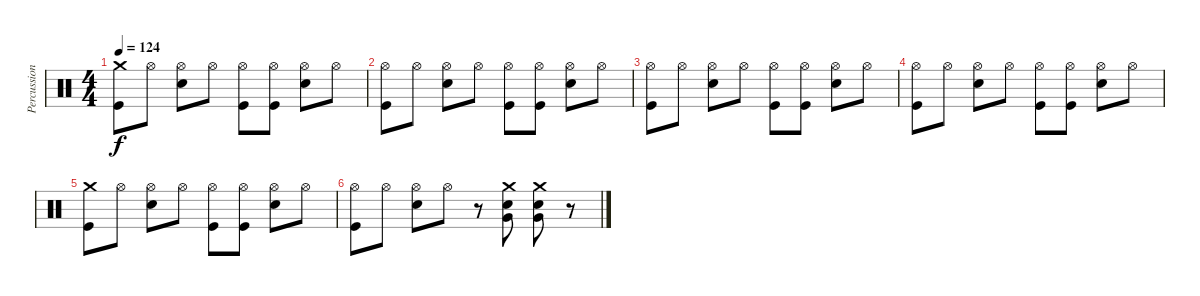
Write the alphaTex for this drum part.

\track ("Percussion" "Percussion") {instrument percussion}
\staff {score}
\articulation defaults
\ts (4 4)
\tempo 124
\clef neutral
\ks c
("Crash medium (hit)" "Kick (hit)").8{dy f} "Hi-Hat (open)".8 ("Hi-Hat (open)" "Snare (hit) 2").8 "Hi-Hat (open)".8 ("Hi-Hat (open)" "Kick (hit)").8 ("Hi-Hat (open)" "Kick (hit)").8 ("Hi-Hat (open)" "Snare (hit) 2").8 "Hi-Hat (open)".8 |
("Hi-Hat (open)" "Kick (hit)").8 "Hi-Hat (open)".8 ("Hi-Hat (open)" "Snare (hit) 2").8 "Hi-Hat (open)".8 ("Hi-Hat (open)" "Kick (hit)").8 ("Hi-Hat (open)" "Kick (hit)").8 ("Hi-Hat (open)" "Snare (hit) 2").8 "Hi-Hat (open)".8 |
("Hi-Hat (open)" "Kick (hit)").8 "Hi-Hat (open)".8 ("Hi-Hat (open)" "Snare (hit) 2").8 "Hi-Hat (open)".8 ("Hi-Hat (open)" "Kick (hit)").8 ("Hi-Hat (open)" "Kick (hit)").8 ("Hi-Hat (open)" "Snare (hit) 2").8 "Hi-Hat (open)".8 |
("Hi-Hat (open)" "Kick (hit)").8 "Hi-Hat (open)".8 ("Hi-Hat (open)" "Snare (hit) 2").8 "Hi-Hat (open)".8 ("Hi-Hat (open)" "Kick (hit)").8 ("Hi-Hat (open)" "Kick (hit)").8 ("Hi-Hat (open)" "Snare (hit) 2").8 "Hi-Hat (open)".8 |
("Crash medium (hit)" "Kick (hit)").8 "Hi-Hat (open)".8 ("Hi-Hat (open)" "Snare (hit) 2").8 "Hi-Hat (open)".8 ("Hi-Hat (open)" "Kick (hit)").8 ("Hi-Hat (open)" "Kick (hit)").8 ("Hi-Hat (open)" "Snare (hit) 2").8 "Hi-Hat (open)".8 |
("Hi-Hat (open)" "Kick (hit)").8 "Hi-Hat (open)".8 ("Hi-Hat (open)" "Snare (hit) 2").8 "Hi-Hat (open)".8 r.8 ("Snare (hit) 2" "Very Low Tom (hit)" "Crash medium (hit)").8 ("Snare (hit) 2" "Very Low Tom (hit)" "Crash medium (hit)").8 r.8
